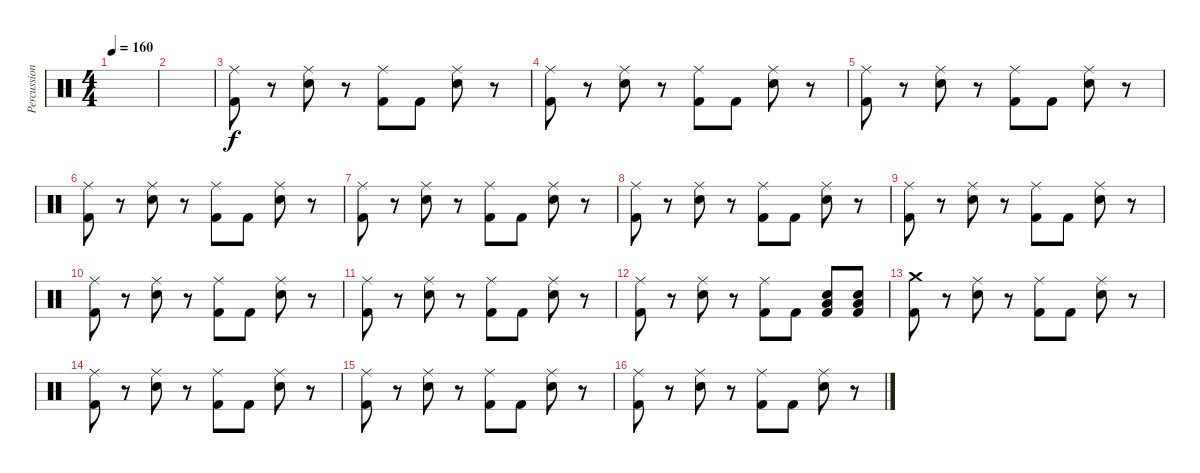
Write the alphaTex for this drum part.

\track ("Percussion" "Percussion") {instrument percussion}
\staff {score}
\articulation defaults
\ts (4 4)
\tempo 160
\clef neutral
\ks c
|
|
("Ride (middle)" "Kick (hit) 2").8 r.8 ("Ride (middle)" "Electric Snare (hit)").8 r.8 ("Ride (middle)" "Kick (hit) 2").8 "Kick (hit) 2".8 ("Ride (middle)" "Electric Snare (hit)").8 r.8 |
("Ride (middle)" "Kick (hit) 2").8 r.8 ("Ride (middle)" "Electric Snare (hit)").8 r.8 ("Ride (middle)" "Kick (hit) 2").8 "Kick (hit) 2".8 ("Ride (middle)" "Electric Snare (hit)").8 r.8 |
("Ride (middle)" "Kick (hit) 2").8 r.8 ("Ride (middle)" "Electric Snare (hit)").8 r.8 ("Ride (middle)" "Kick (hit) 2").8 "Kick (hit) 2".8 ("Ride (middle)" "Electric Snare (hit)").8 r.8 |
("Ride (middle)" "Kick (hit) 2").8 r.8 ("Ride (middle)" "Electric Snare (hit)").8 r.8 ("Ride (middle)" "Kick (hit) 2").8 "Kick (hit) 2".8 ("Ride (middle)" "Electric Snare (hit)").8 r.8 |
("Ride (middle)" "Kick (hit) 2").8 r.8 ("Ride (middle)" "Electric Snare (hit)").8 r.8 ("Ride (middle)" "Kick (hit) 2").8 "Kick (hit) 2".8 ("Ride (middle)" "Electric Snare (hit)").8 r.8 |
("Ride (middle)" "Kick (hit) 2").8 r.8 ("Ride (middle)" "Electric Snare (hit)").8 r.8 ("Ride (middle)" "Kick (hit) 2").8 "Kick (hit) 2".8 ("Ride (middle)" "Electric Snare (hit)").8 r.8 |
("Ride (middle)" "Kick (hit) 2").8 r.8 ("Ride (middle)" "Electric Snare (hit)").8 r.8 ("Ride (middle)" "Kick (hit) 2").8 "Kick (hit) 2".8 ("Ride (middle)" "Electric Snare (hit)").8 r.8 |
("Ride (middle)" "Kick (hit) 2").8 r.8 ("Ride (middle)" "Electric Snare (hit)").8 r.8 ("Ride (middle)" "Kick (hit) 2").8 "Kick (hit) 2".8 ("Ride (middle)" "Electric Snare (hit)").8 r.8 |
("Ride (middle)" "Kick (hit) 2").8 r.8 ("Ride (middle)" "Electric Snare (hit)").8 r.8 ("Ride (middle)" "Kick (hit) 2").8 "Kick (hit) 2".8 ("Ride (middle)" "Electric Snare (hit)").8 r.8 |
("Ride (middle)" "Kick (hit) 2").8 r.8 ("Ride (middle)" "Electric Snare (hit)").8 r.8 ("Ride (middle)" "Kick (hit) 2").8 "Kick (hit) 2".8 ("Low Floor Tom (hit)" "Electric Snare (hit)" "Kick (hit) 2").8 ("Low Floor Tom (hit)" "Electric Snare (hit)" "Kick (hit) 2").8 |
("Crash medium (hit)" "Kick (hit) 2").8 r.8 ("Ride (middle)" "Electric Snare (hit)").8 r.8 ("Ride (middle)" "Kick (hit) 2").8 "Kick (hit) 2".8 ("Ride (middle)" "Electric Snare (hit)").8 r.8 |
("Ride (middle)" "Kick (hit) 2").8 r.8 ("Ride (middle)" "Electric Snare (hit)").8 r.8 ("Ride (middle)" "Kick (hit) 2").8 "Kick (hit) 2".8 ("Ride (middle)" "Electric Snare (hit)").8 r.8 |
("Ride (middle)" "Kick (hit) 2").8 r.8 ("Ride (middle)" "Electric Snare (hit)").8 r.8 ("Ride (middle)" "Kick (hit) 2").8 "Kick (hit) 2".8 ("Ride (middle)" "Electric Snare (hit)").8 r.8 |
("Ride (middle)" "Kick (hit) 2").8 r.8 ("Ride (middle)" "Electric Snare (hit)").8 r.8 ("Ride (middle)" "Kick (hit) 2").8 "Kick (hit) 2".8 ("Ride (middle)" "Electric Snare (hit)").8 r.8
